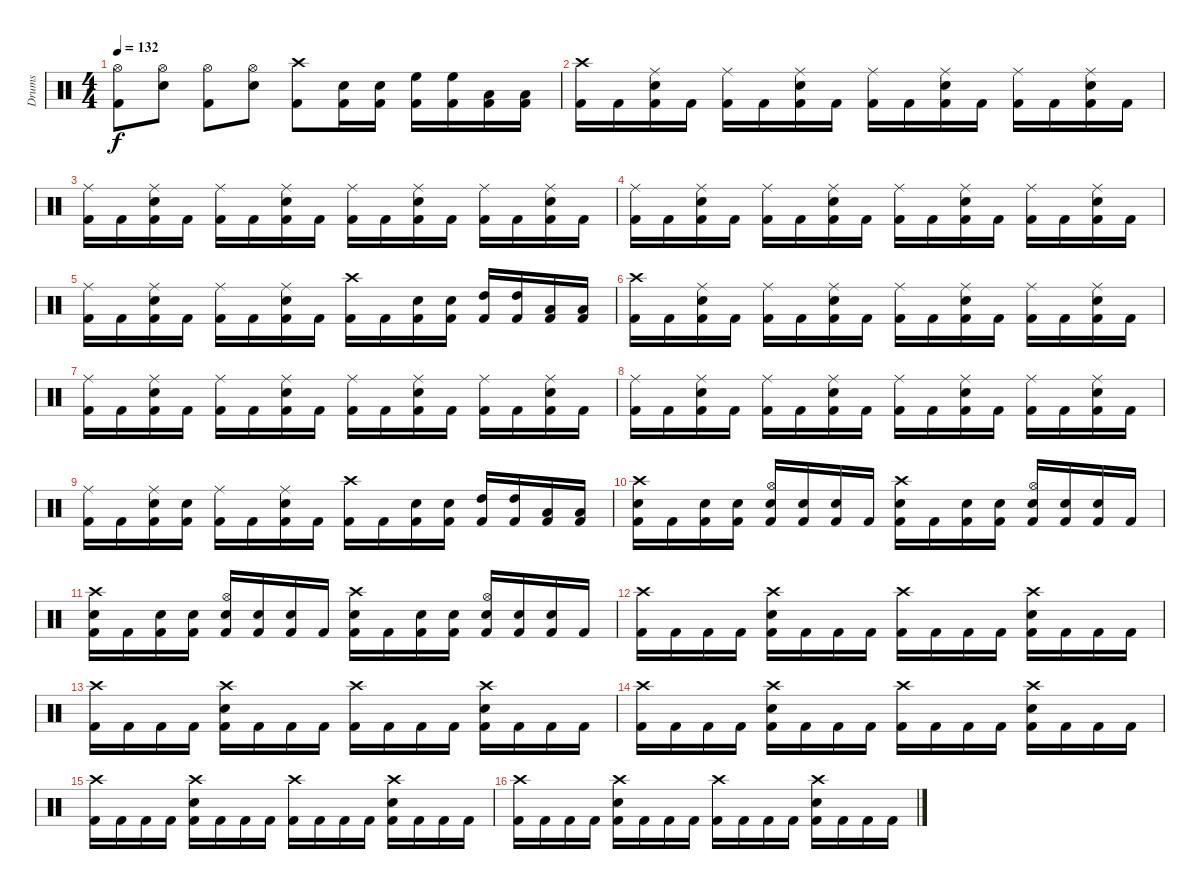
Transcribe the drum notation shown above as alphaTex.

\track ("Drums" "Drums") {instrument percussion}
\staff {score}
\articulation defaults
\ts (4 4)
\tempo 132
\clef neutral
\ks c
("Kick (hit) 2" "Hi-Hat (open)").8{dy f} ("Snare (hit) 2" "Hi-Hat (open)").8 ("Kick (hit) 2" "Hi-Hat (open)").8 ("Snare (hit) 2" "Hi-Hat (open)").8 ("Kick (hit) 2" "Crash high (hit)").8 ("Kick (hit) 2" "Snare (hit) 2").16 ("Kick (hit) 2" "Snare (hit) 2").16 ("Kick (hit) 2" "High Floor Tom (hit)").16 ("Kick (hit) 2" "High Floor Tom (hit)").16 ("Kick (hit) 2" "Low Tom (hit)").16 ("Kick (hit) 2" "Low Tom (hit)").16 |
("Kick (hit) 2" "Crash high (hit)").16 "Kick (hit) 2".16 ("Kick (hit) 2" "Snare (hit) 2" "Ride (middle)").16 "Kick (hit) 2".16 ("Kick (hit) 2" "Ride (middle)").16 "Kick (hit) 2".16 ("Kick (hit) 2" "Snare (hit) 2" "Ride (middle)").16 "Kick (hit) 2".16 ("Kick (hit) 2" "Ride (middle)").16 "Kick (hit) 2".16 ("Kick (hit) 2" "Snare (hit) 2" "Ride (middle)").16 "Kick (hit) 2".16 ("Kick (hit) 2" "Ride (middle)").16 "Kick (hit) 2".16 ("Kick (hit) 2" "Snare (hit) 2" "Ride (middle)").16 "Kick (hit) 2".16 |
("Kick (hit) 2" "Ride (middle)").16 "Kick (hit) 2".16 ("Kick (hit) 2" "Snare (hit) 2" "Ride (middle)").16 "Kick (hit) 2".16 ("Kick (hit) 2" "Ride (middle)").16 "Kick (hit) 2".16 ("Kick (hit) 2" "Snare (hit) 2" "Ride (middle)").16 "Kick (hit) 2".16 ("Kick (hit) 2" "Ride (middle)").16 "Kick (hit) 2".16 ("Kick (hit) 2" "Snare (hit) 2" "Ride (middle)").16 "Kick (hit) 2".16 ("Kick (hit) 2" "Ride (middle)").16 "Kick (hit) 2".16 ("Kick (hit) 2" "Snare (hit) 2" "Ride (middle)").16 "Kick (hit) 2".16 |
("Kick (hit) 2" "Ride (middle)").16 "Kick (hit) 2".16 ("Kick (hit) 2" "Snare (hit) 2" "Ride (middle)").16 "Kick (hit) 2".16 ("Kick (hit) 2" "Ride (middle)").16 "Kick (hit) 2".16 ("Kick (hit) 2" "Snare (hit) 2" "Ride (middle)").16 "Kick (hit) 2".16 ("Kick (hit) 2" "Ride (middle)").16 "Kick (hit) 2".16 ("Kick (hit) 2" "Snare (hit) 2" "Ride (middle)").16 "Kick (hit) 2".16 ("Kick (hit) 2" "Ride (middle)").16 "Kick (hit) 2".16 ("Kick (hit) 2" "Snare (hit) 2" "Ride (middle)").16 "Kick (hit) 2".16 |
("Kick (hit) 2" "Ride (middle)").16 "Kick (hit) 2".16 ("Kick (hit) 2" "Snare (hit) 2" "Ride (middle)").16 "Kick (hit) 2".16 ("Kick (hit) 2" "Ride (middle)").16 "Kick (hit) 2".16 ("Kick (hit) 2" "Snare (hit) 2" "Ride (middle)").16 "Kick (hit) 2".16 ("Kick (hit) 2" "Crash high (hit)").16 "Kick (hit) 2".16 ("Kick (hit) 2" "Snare (hit) 2").16 ("Kick (hit) 2" "Snare (hit) 2").16 ("Kick (hit) 2" "High Tom (hit)").16 ("Kick (hit) 2" "High Tom (hit)").16 ("Kick (hit) 2" "Low Tom (hit)").16 ("Kick (hit) 2" "Low Tom (hit)").16 |
("Kick (hit) 2" "Crash high (hit)").16 "Kick (hit) 2".16 ("Kick (hit) 2" "Snare (hit) 2" "Ride (middle)").16 "Kick (hit) 2".16 ("Kick (hit) 2" "Ride (middle)").16 "Kick (hit) 2".16 ("Kick (hit) 2" "Snare (hit) 2" "Ride (middle)").16 "Kick (hit) 2".16 ("Kick (hit) 2" "Ride (middle)").16 "Kick (hit) 2".16 ("Kick (hit) 2" "Snare (hit) 2" "Ride (middle)").16 "Kick (hit) 2".16 ("Kick (hit) 2" "Ride (middle)").16 "Kick (hit) 2".16 ("Kick (hit) 2" "Snare (hit) 2" "Ride (middle)").16 "Kick (hit) 2".16 |
("Kick (hit) 2" "Ride (middle)").16 "Kick (hit) 2".16 ("Kick (hit) 2" "Snare (hit) 2" "Ride (middle)").16 "Kick (hit) 2".16 ("Kick (hit) 2" "Ride (middle)").16 "Kick (hit) 2".16 ("Kick (hit) 2" "Snare (hit) 2" "Ride (middle)").16 "Kick (hit) 2".16 ("Kick (hit) 2" "Ride (middle)").16 "Kick (hit) 2".16 ("Kick (hit) 2" "Snare (hit) 2" "Ride (middle)").16 "Kick (hit) 2".16 ("Kick (hit) 2" "Ride (middle)").16 "Kick (hit) 2".16 ("Kick (hit) 2" "Snare (hit) 2" "Ride (middle)").16 "Kick (hit) 2".16 |
("Kick (hit) 2" "Ride (middle)").16 "Kick (hit) 2".16 ("Kick (hit) 2" "Snare (hit) 2" "Ride (middle)").16 "Kick (hit) 2".16 ("Kick (hit) 2" "Ride (middle)").16 "Kick (hit) 2".16 ("Kick (hit) 2" "Snare (hit) 2" "Ride (middle)").16 "Kick (hit) 2".16 ("Kick (hit) 2" "Ride (middle)").16 "Kick (hit) 2".16 ("Kick (hit) 2" "Snare (hit) 2" "Ride (middle)").16 "Kick (hit) 2".16 ("Kick (hit) 2" "Ride (middle)").16 "Kick (hit) 2".16 ("Kick (hit) 2" "Snare (hit) 2" "Ride (middle)").16 "Kick (hit) 2".16 |
("Kick (hit) 2" "Ride (middle)").16 "Kick (hit) 2".16 ("Kick (hit) 2" "Snare (hit) 2" "Ride (middle)").16 ("Kick (hit) 2" "Snare (hit) 2").16 ("Kick (hit) 2" "Ride (middle)").16 "Kick (hit) 2".16 ("Kick (hit) 2" "Snare (hit) 2" "Ride (middle)").16 "Kick (hit) 2".16 ("Kick (hit) 2" "Crash high (hit)").16 "Kick (hit) 2".16 ("Kick (hit) 2" "Snare (hit) 2").16 ("Kick (hit) 2" "Snare (hit) 2").16 ("Kick (hit) 2" "High Tom (hit)").16 ("Kick (hit) 2" "High Tom (hit)").16 ("Kick (hit) 2" "Low Tom (hit)").16 ("Kick (hit) 2" "Low Tom (hit)").16 |
("Kick (hit) 2" "Snare (hit) 2" "Crash high (hit)").16 "Kick (hit) 2".16 ("Kick (hit) 2" "Snare (hit) 2").16 ("Kick (hit) 2" "Snare (hit) 2").16 ("Kick (hit) 2" "Snare (hit) 2" "Hi-Hat (open)").16 ("Kick (hit) 2" "Snare (hit) 2").16 ("Kick (hit) 2" "Snare (hit) 2").16 "Kick (hit) 2".16 ("Kick (hit) 2" "Snare (hit) 2" "Crash high (hit)").16 "Kick (hit) 2".16 ("Kick (hit) 2" "Snare (hit) 2").16 ("Kick (hit) 2" "Snare (hit) 2").16 ("Kick (hit) 2" "Snare (hit) 2" "Hi-Hat (open)").16 ("Kick (hit) 2" "Snare (hit) 2").16 ("Kick (hit) 2" "Snare (hit) 2").16 "Kick (hit) 2".16 |
("Kick (hit) 2" "Snare (hit) 2" "Crash high (hit)").16 "Kick (hit) 2".16 ("Kick (hit) 2" "Snare (hit) 2").16 ("Kick (hit) 2" "Snare (hit) 2").16 ("Kick (hit) 2" "Snare (hit) 2" "Hi-Hat (open)").16 ("Kick (hit) 2" "Snare (hit) 2").16 ("Kick (hit) 2" "Snare (hit) 2").16 "Kick (hit) 2".16 ("Kick (hit) 2" "Snare (hit) 2" "Crash high (hit)").16 "Kick (hit) 2".16 ("Kick (hit) 2" "Snare (hit) 2").16 ("Kick (hit) 2" "Snare (hit) 2").16 ("Kick (hit) 2" "Snare (hit) 2" "Hi-Hat (open)").16 ("Kick (hit) 2" "Snare (hit) 2").16 ("Kick (hit) 2" "Snare (hit) 2").16 "Kick (hit) 2".16 |
("Kick (hit) 2" "Crash high (hit)").16 "Kick (hit) 2".16 "Kick (hit) 2".16 "Kick (hit) 2".16 ("Kick (hit) 2" "Snare (hit) 2" "Crash high (hit)").16 "Kick (hit) 2".16 "Kick (hit) 2".16 "Kick (hit) 2".16 ("Kick (hit) 2" "Crash high (hit)").16 "Kick (hit) 2".16 "Kick (hit) 2".16 "Kick (hit) 2".16 ("Kick (hit) 2" "Snare (hit) 2" "Crash high (hit)").16 "Kick (hit) 2".16 "Kick (hit) 2".16 "Kick (hit) 2".16 |
("Kick (hit) 2" "Crash high (hit)").16 "Kick (hit) 2".16 "Kick (hit) 2".16 "Kick (hit) 2".16 ("Kick (hit) 2" "Snare (hit) 2" "Crash high (hit)").16 "Kick (hit) 2".16 "Kick (hit) 2".16 "Kick (hit) 2".16 ("Kick (hit) 2" "Crash high (hit)").16 "Kick (hit) 2".16 "Kick (hit) 2".16 "Kick (hit) 2".16 ("Kick (hit) 2" "Snare (hit) 2" "Crash high (hit)").16 "Kick (hit) 2".16 "Kick (hit) 2".16 "Kick (hit) 2".16 |
("Kick (hit) 2" "Crash high (hit)").16 "Kick (hit) 2".16 "Kick (hit) 2".16 "Kick (hit) 2".16 ("Kick (hit) 2" "Snare (hit) 2" "Crash high (hit)").16 "Kick (hit) 2".16 "Kick (hit) 2".16 "Kick (hit) 2".16 ("Kick (hit) 2" "Crash high (hit)").16 "Kick (hit) 2".16 "Kick (hit) 2".16 "Kick (hit) 2".16 ("Kick (hit) 2" "Snare (hit) 2" "Crash high (hit)").16 "Kick (hit) 2".16 "Kick (hit) 2".16 "Kick (hit) 2".16 |
("Kick (hit) 2" "Crash high (hit)").16 "Kick (hit) 2".16 "Kick (hit) 2".16 "Kick (hit) 2".16 ("Kick (hit) 2" "Snare (hit) 2" "Crash high (hit)").16 "Kick (hit) 2".16 "Kick (hit) 2".16 "Kick (hit) 2".16 ("Kick (hit) 2" "Crash high (hit)").16 "Kick (hit) 2".16 "Kick (hit) 2".16 "Kick (hit) 2".16 ("Kick (hit) 2" "Snare (hit) 2" "Crash high (hit)").16 "Kick (hit) 2".16 "Kick (hit) 2".16 "Kick (hit) 2".16 |
("Kick (hit) 2" "Crash high (hit)").16 "Kick (hit) 2".16 "Kick (hit) 2".16 "Kick (hit) 2".16 ("Kick (hit) 2" "Snare (hit) 2" "Crash high (hit)").16 "Kick (hit) 2".16 "Kick (hit) 2".16 "Kick (hit) 2".16 ("Kick (hit) 2" "Crash high (hit)").16 "Kick (hit) 2".16 "Kick (hit) 2".16 "Kick (hit) 2".16 ("Kick (hit) 2" "Snare (hit) 2" "Crash high (hit)").16 "Kick (hit) 2".16 "Kick (hit) 2".16 "Kick (hit) 2".16
